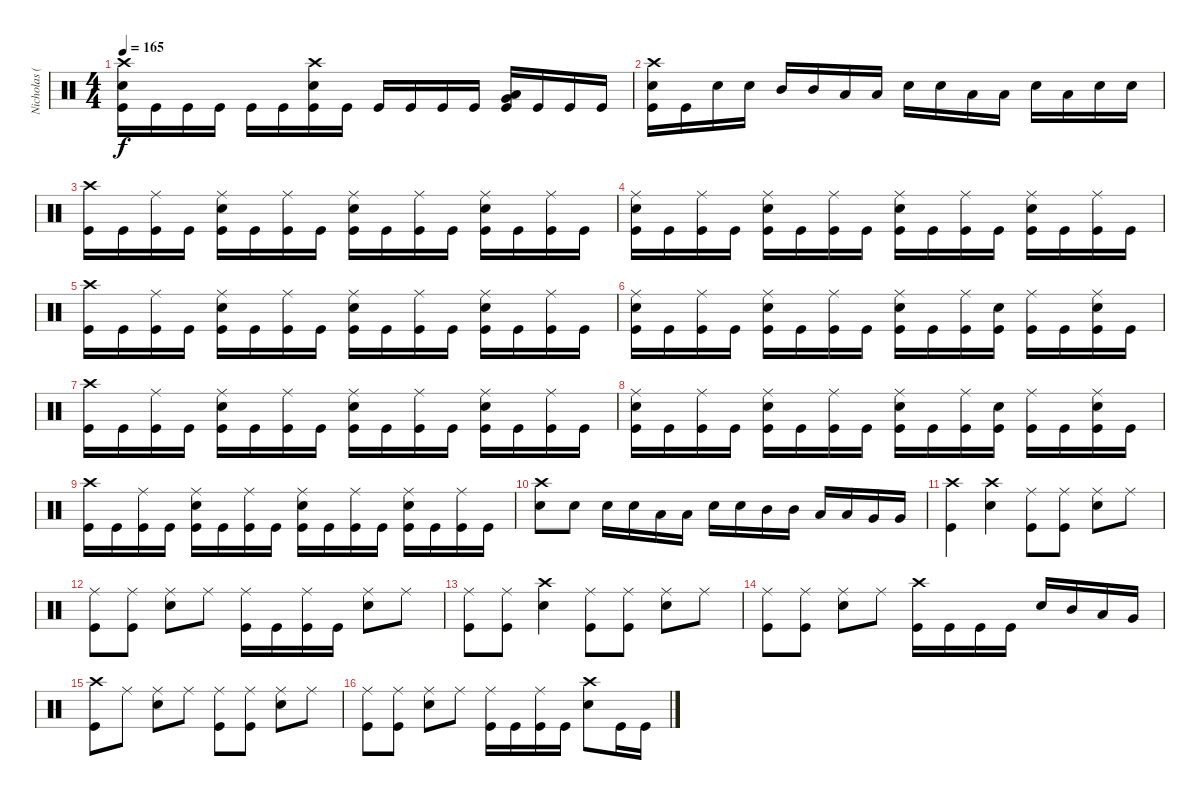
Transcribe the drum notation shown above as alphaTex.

\track ("Nicholas (Drums)" "Nicholas (") {instrument percussion}
\staff {score}
\articulation defaults
\ts (4 4)
\tempo 165
\clef neutral
\ks c
("Crash high (hit)" "Electric Snare (hit)" "Kick (hit)").16{dy f} "Kick (hit)".16 "Kick (hit)".16 "Kick (hit)".16 "Kick (hit)".16 "Kick (hit)".16 ("Crash high (hit)" "Electric Snare (hit)" "Kick (hit)").16 "Kick (hit)".16 "Kick (hit)".16 "Kick (hit)".16 "Kick (hit)".16 "Kick (hit)".16 ("Low Tom (hit)" "Very Low Tom (hit)" "Kick (hit)").16 "Kick (hit)".16 "Kick (hit)".16 "Kick (hit)".16 |
("Crash high (hit)" "Electric Snare (hit)" "Kick (hit)").16 "Kick (hit)".16 "Electric Snare (hit)".16 "Electric Snare (hit)".16 "Mid Tom (hit)".16 "Mid Tom (hit)".16 "Low Tom (hit)".16 "Low Tom (hit)".16 "Electric Snare (hit)".16 "Electric Snare (hit)".16 "Low Tom (hit)".16 "Low Tom (hit)".16 "Electric Snare (hit)".16 "Low Tom (hit)".16 "Electric Snare (hit)".16 "Electric Snare (hit)".16 |
("Crash high (hit)" "Kick (hit)").16 "Kick (hit)".16 ("Ride (middle)" "Kick (hit)").16 "Kick (hit)".16 ("Ride (middle)" "Electric Snare (hit)" "Kick (hit)").16 "Kick (hit)".16 ("Ride (middle)" "Kick (hit)").16 "Kick (hit)".16 ("Ride (middle)" "Electric Snare (hit)" "Kick (hit)").16 "Kick (hit)".16 ("Ride (middle)" "Kick (hit)").16 "Kick (hit)".16 ("Ride (middle)" "Electric Snare (hit)" "Kick (hit)").16 "Kick (hit)".16 ("Ride (middle)" "Kick (hit)").16 "Kick (hit)".16 |
("Ride (middle)" "Electric Snare (hit)" "Kick (hit)").16 "Kick (hit)".16 ("Ride (middle)" "Kick (hit)").16 "Kick (hit)".16 ("Ride (middle)" "Electric Snare (hit)" "Kick (hit)").16 "Kick (hit)".16 ("Ride (middle)" "Kick (hit)").16 "Kick (hit)".16 ("Ride (middle)" "Electric Snare (hit)" "Kick (hit)").16 "Kick (hit)".16 ("Ride (middle)" "Kick (hit)").16 "Kick (hit)".16 ("Ride (middle)" "Electric Snare (hit)" "Kick (hit)").16 "Kick (hit)".16 ("Ride (middle)" "Kick (hit)").16 "Kick (hit)".16 |
("Crash high (hit)" "Kick (hit)").16 "Kick (hit)".16 ("Ride (middle)" "Kick (hit)").16 "Kick (hit)".16 ("Ride (middle)" "Electric Snare (hit)" "Kick (hit)").16 "Kick (hit)".16 ("Ride (middle)" "Kick (hit)").16 "Kick (hit)".16 ("Ride (middle)" "Electric Snare (hit)" "Kick (hit)").16 "Kick (hit)".16 ("Ride (middle)" "Kick (hit)").16 "Kick (hit)".16 ("Ride (middle)" "Electric Snare (hit)" "Kick (hit)").16 "Kick (hit)".16 ("Ride (middle)" "Kick (hit)").16 "Kick (hit)".16 |
("Ride (middle)" "Electric Snare (hit)" "Kick (hit)").16 "Kick (hit)".16 ("Ride (middle)" "Kick (hit)").16 "Kick (hit)".16 ("Ride (middle)" "Electric Snare (hit)" "Kick (hit)").16 "Kick (hit)".16 ("Ride (middle)" "Kick (hit)").16 "Kick (hit)".16 ("Ride (middle)" "Electric Snare (hit)" "Kick (hit)").16 "Kick (hit)".16 ("Ride (middle)" "Kick (hit)").16 ("Electric Snare (hit)" "Kick (hit)").16 ("Ride (middle)" "Kick (hit)").16 "Kick (hit)".16 ("Ride (middle)" "Electric Snare (hit)" "Kick (hit)").16 "Kick (hit)".16 |
("Crash high (hit)" "Kick (hit)").16 "Kick (hit)".16 ("Ride (middle)" "Kick (hit)").16 "Kick (hit)".16 ("Ride (middle)" "Electric Snare (hit)" "Kick (hit)").16 "Kick (hit)".16 ("Ride (middle)" "Kick (hit)").16 "Kick (hit)".16 ("Ride (middle)" "Electric Snare (hit)" "Kick (hit)").16 "Kick (hit)".16 ("Ride (middle)" "Kick (hit)").16 "Kick (hit)".16 ("Ride (middle)" "Electric Snare (hit)" "Kick (hit)").16 "Kick (hit)".16 ("Ride (middle)" "Kick (hit)").16 "Kick (hit)".16 |
("Ride (middle)" "Electric Snare (hit)" "Kick (hit)").16 "Kick (hit)".16 ("Ride (middle)" "Kick (hit)").16 "Kick (hit)".16 ("Ride (middle)" "Electric Snare (hit)" "Kick (hit)").16 "Kick (hit)".16 ("Ride (middle)" "Kick (hit)").16 "Kick (hit)".16 ("Ride (middle)" "Electric Snare (hit)" "Kick (hit)").16 "Kick (hit)".16 ("Ride (middle)" "Kick (hit)").16 ("Electric Snare (hit)" "Kick (hit)").16 ("Ride (middle)" "Kick (hit)").16 "Kick (hit)".16 ("Ride (middle)" "Electric Snare (hit)" "Kick (hit)").16 "Kick (hit)".16 |
("Crash high (hit)" "Kick (hit)").16 "Kick (hit)".16 ("Ride (middle)" "Kick (hit)").16 "Kick (hit)".16 ("Ride (middle)" "Electric Snare (hit)" "Kick (hit)").16 "Kick (hit)".16 ("Ride (middle)" "Kick (hit)").16 "Kick (hit)".16 ("Ride (middle)" "Electric Snare (hit)" "Kick (hit)").16 "Kick (hit)".16 ("Ride (middle)" "Kick (hit)").16 "Kick (hit)".16 ("Ride (middle)" "Electric Snare (hit)" "Kick (hit)").16 "Kick (hit)".16 ("Ride (middle)" "Kick (hit)").16 "Kick (hit)".16 |
("Crash high (hit)" "Electric Snare (hit)").8 "Electric Snare (hit)".8 "Electric Snare (hit)".16 "Electric Snare (hit)".16 "Low Tom (hit)".16 "Low Tom (hit)".16 "Electric Snare (hit)".16 "Electric Snare (hit)".16 "Mid Tom (hit)".16 "Mid Tom (hit)".16 "Low Tom (hit)".16 "Low Tom (hit)".16 "Very Low Tom (hit)".16 "Very Low Tom (hit)".16 |
("Crash high (hit)" "Kick (hit)").4 ("Crash high (hit)" "Electric Snare (hit)").4 ("Ride (middle)" "Kick (hit)").8 ("Ride (middle)" "Kick (hit)").8 ("Ride (middle)" "Electric Snare (hit)").8 "Ride (middle)".8 |
("Ride (middle)" "Kick (hit)").8 ("Ride (middle)" "Kick (hit)").8 ("Ride (middle)" "Electric Snare (hit)").8 "Ride (middle)".8 ("Ride (middle)" "Kick (hit)").16 "Kick (hit)".16 ("Ride (middle)" "Kick (hit)").16 "Kick (hit)".16 ("Ride (middle)" "Electric Snare (hit)").8 "Ride (middle)".8 |
("Ride (middle)" "Kick (hit)").8 ("Ride (middle)" "Kick (hit)").8 ("Crash high (hit)" "Electric Snare (hit)").4 ("Ride (middle)" "Kick (hit)").8 ("Ride (middle)" "Kick (hit)").8 ("Ride (middle)" "Electric Snare (hit)").8 "Ride (middle)".8 |
("Ride (middle)" "Kick (hit)").8 ("Ride (middle)" "Kick (hit)").8 ("Ride (middle)" "Electric Snare (hit)").8 "Ride (middle)".8 ("Crash high (hit)" "Kick (hit)").16 "Kick (hit)".16 "Kick (hit)".16 "Kick (hit)".16 "Electric Snare (hit)".16 "Mid Tom (hit)".16 "Low Tom (hit)".16 "Very Low Tom (hit)".16 |
("Crash high (hit)" "Kick (hit)").8 "Ride (middle)".8 ("Ride (middle)" "Electric Snare (hit)").8 "Ride (middle)".8 ("Ride (middle)" "Kick (hit)").8 ("Ride (middle)" "Kick (hit)").8 ("Ride (middle)" "Electric Snare (hit)").8 "Ride (middle)".8 |
("Ride (middle)" "Kick (hit)").8 ("Ride (middle)" "Kick (hit)").8 ("Ride (middle)" "Electric Snare (hit)").8 "Ride (middle)".8 ("Ride (middle)" "Kick (hit)").16 "Kick (hit)".16 ("Ride (middle)" "Kick (hit)").16 "Kick (hit)".16 ("Crash high (hit)" "Electric Snare (hit)").8 "Kick (hit)".16 "Kick (hit)".16
